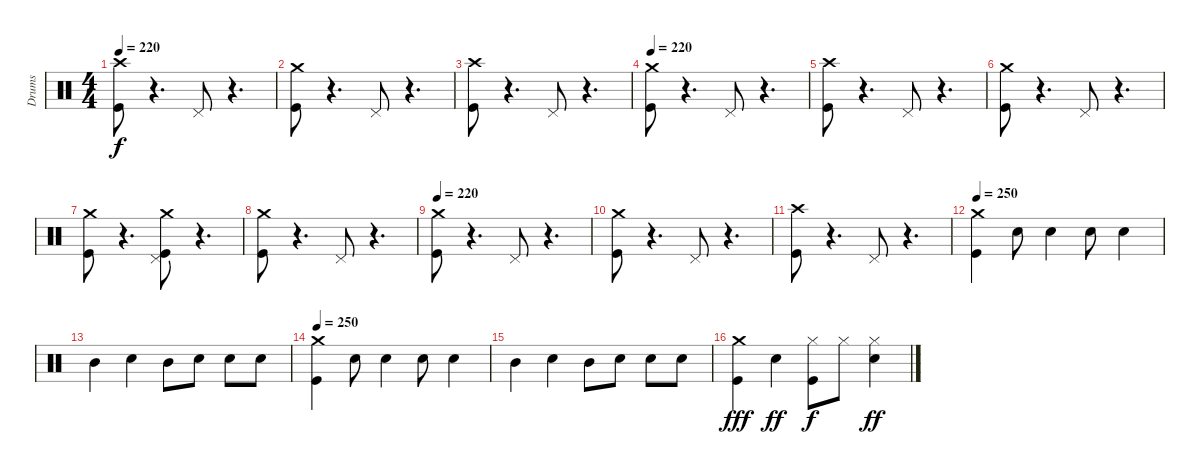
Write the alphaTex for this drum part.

\track ("Drums" "Drums") {instrument percussion}
\staff {score}
\articulation defaults
\ts (4 4)
\tempo 220
\clef neutral
\ks c
("Crash high (hit)" "Kick (hit)").8{dy f} r.4{d} "Pedal Hi-Hat (hit)".8 r.4{d} |
("Crash medium (hit)" "Kick (hit)").8 r.4{d} "Pedal Hi-Hat (hit)".8 r.4{d} |
("Crash high (hit)" "Kick (hit)").8 r.4{d} "Pedal Hi-Hat (hit)".8 r.4{d} |
\tempo 220
("Crash medium (hit)" "Kick (hit)").8 r.4{d} "Pedal Hi-Hat (hit)".8 r.4{d} |
("Crash high (hit)" "Kick (hit)").8 r.4{d} "Pedal Hi-Hat (hit)".8 r.4{d} |
("Crash medium (hit)" "Kick (hit)").8 r.4{d} "Pedal Hi-Hat (hit)".8 r.4{d} |
("Crash medium (hit)" "Kick (hit)").8 r.4{d} ("Pedal Hi-Hat (hit)" "Crash medium (hit)" "Kick (hit)").8 r.4{d} |
("Crash medium (hit)" "Kick (hit)").8 r.4{d} "Pedal Hi-Hat (hit)".8 r.4{d} |
\tempo 220
("Crash medium (hit)" "Kick (hit)").8 r.4{d} "Pedal Hi-Hat (hit)".8 r.4{d} |
("Crash medium (hit)" "Kick (hit)").8 r.4{d} "Pedal Hi-Hat (hit)".8 r.4{d} |
("Crash high (hit)" "Kick (hit)").8 r.4{d} "Pedal Hi-Hat (hit)".8 r.4{d} |
\tempo 250
("Kick (hit)" "Crash medium (hit)").4 "Snare (hit) 2".8 "Snare (hit) 2".4 "Snare (hit) 2".8 "Snare (hit) 2".4 |
"Mid Tom (hit)".4 "Snare (hit) 2".4 "Mid Tom (hit)".8 "Snare (hit) 2".8 "Snare (hit) 2".8 "Snare (hit) 2".8 |
\tempo 250
("Kick (hit)" "Crash medium (hit)").4 "Snare (hit) 2".8 "Snare (hit) 2".4 "Snare (hit) 2".8 "Snare (hit) 2".4 |
"Mid Tom (hit)".4 "Snare (hit) 2".4 "Mid Tom (hit)".8 "Snare (hit) 2".8 "Snare (hit) 2".8 "Snare (hit) 2".8 |
("Crash medium (hit)" "Kick (hit)").4{dy fff} "Snare (hit) 2".4{dy ff} ("Hi-Hat (closed)" "Kick (hit)").8{dy f} "Hi-Hat (closed)".8 ("Hi-Hat (closed)" "Snare (hit) 2").4{dy ff}
